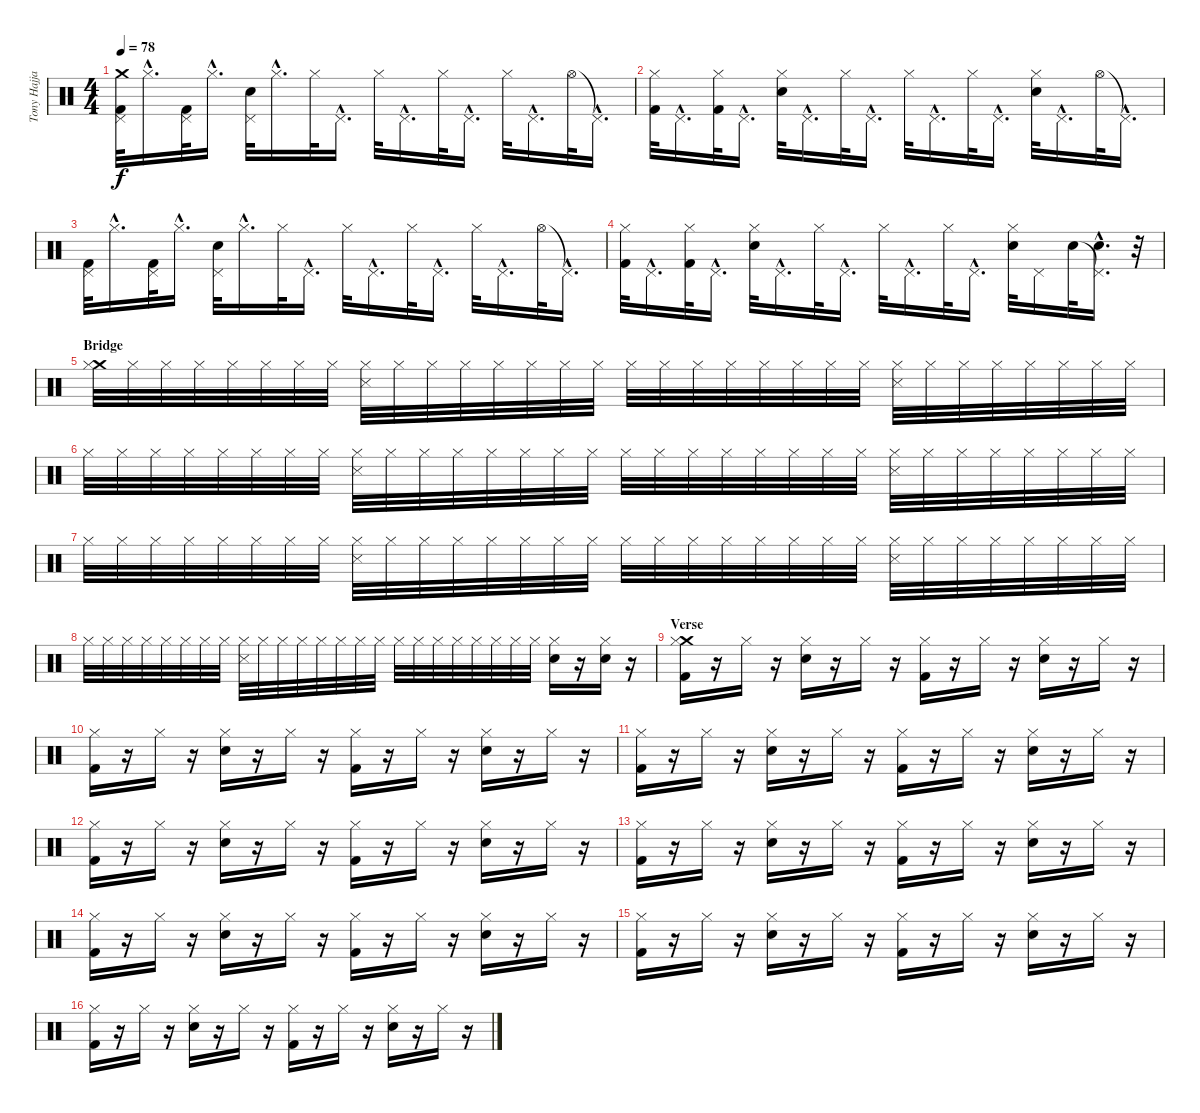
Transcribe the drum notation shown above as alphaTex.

\track ("Tony Hajjar" "Tony Hajja") {instrument percussion}
\staff {score}
\articulation defaults
\ts (4 4)
\tempo 78
\clef neutral
\ks c
("Crash medium (hit)" "Pedal Hi-Hat (hit)" "Kick (hit) 2").32{dy f} "Hi-Hat (closed)"{hac}.16{d} ("Pedal Hi-Hat (hit)" "Kick (hit) 2").32 "Hi-Hat (closed)"{hac}.16{d} ("Pedal Hi-Hat (hit)" "Electric Snare (hit)").32 "Hi-Hat (closed)"{hac}.16{d} "Hi-Hat (closed)".32 "Pedal Hi-Hat (hit)"{hac}.16{d} "Hi-Hat (closed)".32 "Pedal Hi-Hat (hit)"{hac}.16{d} "Hi-Hat (closed)".32 "Pedal Hi-Hat (hit)"{hac}.16{d} "Hi-Hat (closed)".32 "Pedal Hi-Hat (hit)"{hac}.16{d} "Hi-Hat (open)".32 "Pedal Hi-Hat (hit)"{hac t}.16{d} |
("Hi-Hat (closed)" "Kick (hit) 2").32 "Pedal Hi-Hat (hit)"{hac}.16{d} ("Hi-Hat (closed)" "Kick (hit) 2").32 "Pedal Hi-Hat (hit)"{hac}.16{d} ("Hi-Hat (closed)" "Electric Snare (hit)").32 "Pedal Hi-Hat (hit)"{hac}.16{d} "Hi-Hat (closed)".32 "Pedal Hi-Hat (hit)"{hac}.16{d} "Hi-Hat (closed)".32 "Pedal Hi-Hat (hit)"{hac}.16{d} "Hi-Hat (closed)".32 "Pedal Hi-Hat (hit)"{hac}.16{d} ("Hi-Hat (closed)" "Electric Snare (hit)").32 "Pedal Hi-Hat (hit)"{hac}.16{d} "Hi-Hat (open)".32 "Pedal Hi-Hat (hit)"{hac t}.16{d} |
("Pedal Hi-Hat (hit)" "Kick (hit) 2").32 "Hi-Hat (closed)"{hac}.16{d} ("Pedal Hi-Hat (hit)" "Kick (hit) 2").32 "Hi-Hat (closed)"{hac}.16{d} ("Pedal Hi-Hat (hit)" "Electric Snare (hit)").32 "Hi-Hat (closed)"{hac}.16{d} "Hi-Hat (closed)".32 "Pedal Hi-Hat (hit)"{hac}.16{d} "Hi-Hat (closed)".32 "Pedal Hi-Hat (hit)"{hac}.16{d} "Hi-Hat (closed)".32 "Pedal Hi-Hat (hit)"{hac}.16{d} "Hi-Hat (closed)".32 "Pedal Hi-Hat (hit)"{hac}.16{d} "Hi-Hat (open)".32 "Pedal Hi-Hat (hit)"{hac t}.16{d} |
("Hi-Hat (closed)" "Kick (hit) 2").32 "Pedal Hi-Hat (hit)"{hac}.16{d} ("Hi-Hat (closed)" "Kick (hit) 2").32 "Pedal Hi-Hat (hit)"{hac}.16{d} ("Hi-Hat (closed)" "Electric Snare (hit)").32 "Pedal Hi-Hat (hit)"{hac}.16{d} "Hi-Hat (closed)".32 "Pedal Hi-Hat (hit)"{hac}.16{d} "Hi-Hat (closed)".32 "Pedal Hi-Hat (hit)"{hac}.16{d} "Hi-Hat (closed)".32 "Pedal Hi-Hat (hit)"{hac}.16{d} ("Hi-Hat (closed)" "Electric Snare (hit)").32 "Pedal Hi-Hat (hit)".16 "Electric Snare (hit)".32 ("Pedal Hi-Hat (hit)"{hac t} "Electric Snare (hit)"{hac}).16{d} r.32 |
\section ("" "Bridge")
("Crash medium (hit)" "Hi-Hat (closed)").32 "Hi-Hat (closed)".32 "Hi-Hat (closed)".32 "Hi-Hat (closed)".32 "Hi-Hat (closed)".32 "Hi-Hat (closed)".32 "Hi-Hat (closed)".32 "Hi-Hat (closed)".32 ("Hi-Hat (closed)" "Snare (side stick) 3").32 "Hi-Hat (closed)".32 "Hi-Hat (closed)".32 "Hi-Hat (closed)".32 "Hi-Hat (closed)".32 "Hi-Hat (closed)".32 "Hi-Hat (closed)".32 "Hi-Hat (closed)".32 "Hi-Hat (closed)".32 "Hi-Hat (closed)".32 "Hi-Hat (closed)".32 "Hi-Hat (closed)".32 "Hi-Hat (closed)".32 "Hi-Hat (closed)".32 "Hi-Hat (closed)".32 "Hi-Hat (closed)".32 ("Hi-Hat (closed)" "Snare (side stick) 3").32 "Hi-Hat (closed)".32 "Hi-Hat (closed)".32 "Hi-Hat (closed)".32 "Hi-Hat (closed)".32 "Hi-Hat (closed)".32 "Hi-Hat (closed)".32 "Hi-Hat (closed)".32 |
"Hi-Hat (closed)".32 "Hi-Hat (closed)".32 "Hi-Hat (closed)".32 "Hi-Hat (closed)".32 "Hi-Hat (closed)".32 "Hi-Hat (closed)".32 "Hi-Hat (closed)".32 "Hi-Hat (closed)".32 ("Hi-Hat (closed)" "Snare (side stick) 3").32 "Hi-Hat (closed)".32 "Hi-Hat (closed)".32 "Hi-Hat (closed)".32 "Hi-Hat (closed)".32 "Hi-Hat (closed)".32 "Hi-Hat (closed)".32 "Hi-Hat (closed)".32 "Hi-Hat (closed)".32 "Hi-Hat (closed)".32 "Hi-Hat (closed)".32 "Hi-Hat (closed)".32 "Hi-Hat (closed)".32 "Hi-Hat (closed)".32 "Hi-Hat (closed)".32 "Hi-Hat (closed)".32 ("Hi-Hat (closed)" "Snare (side stick) 3").32 "Hi-Hat (closed)".32 "Hi-Hat (closed)".32 "Hi-Hat (closed)".32 "Hi-Hat (closed)".32 "Hi-Hat (closed)".32 "Hi-Hat (closed)".32 "Hi-Hat (closed)".32 |
"Hi-Hat (closed)".32 "Hi-Hat (closed)".32 "Hi-Hat (closed)".32 "Hi-Hat (closed)".32 "Hi-Hat (closed)".32 "Hi-Hat (closed)".32 "Hi-Hat (closed)".32 "Hi-Hat (closed)".32 ("Hi-Hat (closed)" "Snare (side stick) 3").32 "Hi-Hat (closed)".32 "Hi-Hat (closed)".32 "Hi-Hat (closed)".32 "Hi-Hat (closed)".32 "Hi-Hat (closed)".32 "Hi-Hat (closed)".32 "Hi-Hat (closed)".32 "Hi-Hat (closed)".32 "Hi-Hat (closed)".32 "Hi-Hat (closed)".32 "Hi-Hat (closed)".32 "Hi-Hat (closed)".32 "Hi-Hat (closed)".32 "Hi-Hat (closed)".32 "Hi-Hat (closed)".32 ("Hi-Hat (closed)" "Snare (side stick) 3").32 "Hi-Hat (closed)".32 "Hi-Hat (closed)".32 "Hi-Hat (closed)".32 "Hi-Hat (closed)".32 "Hi-Hat (closed)".32 "Hi-Hat (closed)".32 "Hi-Hat (closed)".32 |
"Hi-Hat (closed)".32 "Hi-Hat (closed)".32 "Hi-Hat (closed)".32 "Hi-Hat (closed)".32 "Hi-Hat (closed)".32 "Hi-Hat (closed)".32 "Hi-Hat (closed)".32 "Hi-Hat (closed)".32 ("Hi-Hat (closed)" "Snare (side stick) 3").32 "Hi-Hat (closed)".32 "Hi-Hat (closed)".32 "Hi-Hat (closed)".32 "Hi-Hat (closed)".32 "Hi-Hat (closed)".32 "Hi-Hat (closed)".32 "Hi-Hat (closed)".32 "Hi-Hat (closed)".32 "Hi-Hat (closed)".32 "Hi-Hat (closed)".32 "Hi-Hat (closed)".32 "Hi-Hat (closed)".32 "Hi-Hat (closed)".32 "Hi-Hat (closed)".32 "Hi-Hat (closed)".32 ("Hi-Hat (closed)" "Electric Snare (hit)").16 r.16 ("Hi-Hat (closed)" "Electric Snare (hit)").16 r.16 |
\section ("" "Verse")
("Crash medium (hit)" "Hi-Hat (closed)" "Kick (hit) 2").16 r.16 "Hi-Hat (closed)".16 r.16 ("Hi-Hat (closed)" "Electric Snare (hit)").16 r.16 "Hi-Hat (closed)".16 r.16 ("Hi-Hat (closed)" "Kick (hit) 2").16 r.16 "Hi-Hat (closed)".16 r.16 ("Hi-Hat (closed)" "Electric Snare (hit)").16 r.16 "Hi-Hat (closed)".16 r.16 |
("Hi-Hat (closed)" "Kick (hit) 2").16 r.16 "Hi-Hat (closed)".16 r.16 ("Hi-Hat (closed)" "Electric Snare (hit)").16 r.16 "Hi-Hat (closed)".16 r.16 ("Hi-Hat (closed)" "Kick (hit) 2").16 r.16 "Hi-Hat (closed)".16 r.16 ("Hi-Hat (closed)" "Electric Snare (hit)").16 r.16 "Hi-Hat (closed)".16 r.16 |
("Hi-Hat (closed)" "Kick (hit) 2").16 r.16 "Hi-Hat (closed)".16 r.16 ("Hi-Hat (closed)" "Electric Snare (hit)").16 r.16 "Hi-Hat (closed)".16 r.16 ("Hi-Hat (closed)" "Kick (hit) 2").16 r.16 "Hi-Hat (closed)".16 r.16 ("Hi-Hat (closed)" "Electric Snare (hit)").16 r.16 "Hi-Hat (closed)".16 r.16 |
("Hi-Hat (closed)" "Kick (hit) 2").16 r.16 "Hi-Hat (closed)".16 r.16 ("Hi-Hat (closed)" "Electric Snare (hit)").16 r.16 "Hi-Hat (closed)".16 r.16 ("Hi-Hat (closed)" "Kick (hit) 2").16 r.16 "Hi-Hat (closed)".16 r.16 ("Hi-Hat (closed)" "Electric Snare (hit)").16 r.16 "Hi-Hat (closed)".16 r.16 |
("Hi-Hat (closed)" "Kick (hit) 2").16 r.16 "Hi-Hat (closed)".16 r.16 ("Hi-Hat (closed)" "Electric Snare (hit)").16 r.16 "Hi-Hat (closed)".16 r.16 ("Hi-Hat (closed)" "Kick (hit) 2").16 r.16 "Hi-Hat (closed)".16 r.16 ("Hi-Hat (closed)" "Electric Snare (hit)").16 r.16 "Hi-Hat (closed)".16 r.16 |
("Hi-Hat (closed)" "Kick (hit) 2").16 r.16 "Hi-Hat (closed)".16 r.16 ("Hi-Hat (closed)" "Electric Snare (hit)").16 r.16 "Hi-Hat (closed)".16 r.16 ("Hi-Hat (closed)" "Kick (hit) 2").16 r.16 "Hi-Hat (closed)".16 r.16 ("Hi-Hat (closed)" "Electric Snare (hit)").16 r.16 "Hi-Hat (closed)".16 r.16 |
("Hi-Hat (closed)" "Kick (hit) 2").16 r.16 "Hi-Hat (closed)".16 r.16 ("Hi-Hat (closed)" "Electric Snare (hit)").16 r.16 "Hi-Hat (closed)".16 r.16 ("Hi-Hat (closed)" "Kick (hit) 2").16 r.16 "Hi-Hat (closed)".16 r.16 ("Hi-Hat (closed)" "Electric Snare (hit)").16 r.16 "Hi-Hat (closed)".16 r.16 |
("Hi-Hat (closed)" "Kick (hit) 2").16 r.16 "Hi-Hat (closed)".16 r.16 ("Hi-Hat (closed)" "Electric Snare (hit)").16 r.16 "Hi-Hat (closed)".16 r.16 ("Hi-Hat (closed)" "Kick (hit) 2").16 r.16 "Hi-Hat (closed)".16 r.16 ("Hi-Hat (closed)" "Electric Snare (hit)").16 r.16 "Hi-Hat (closed)".16 r.16
